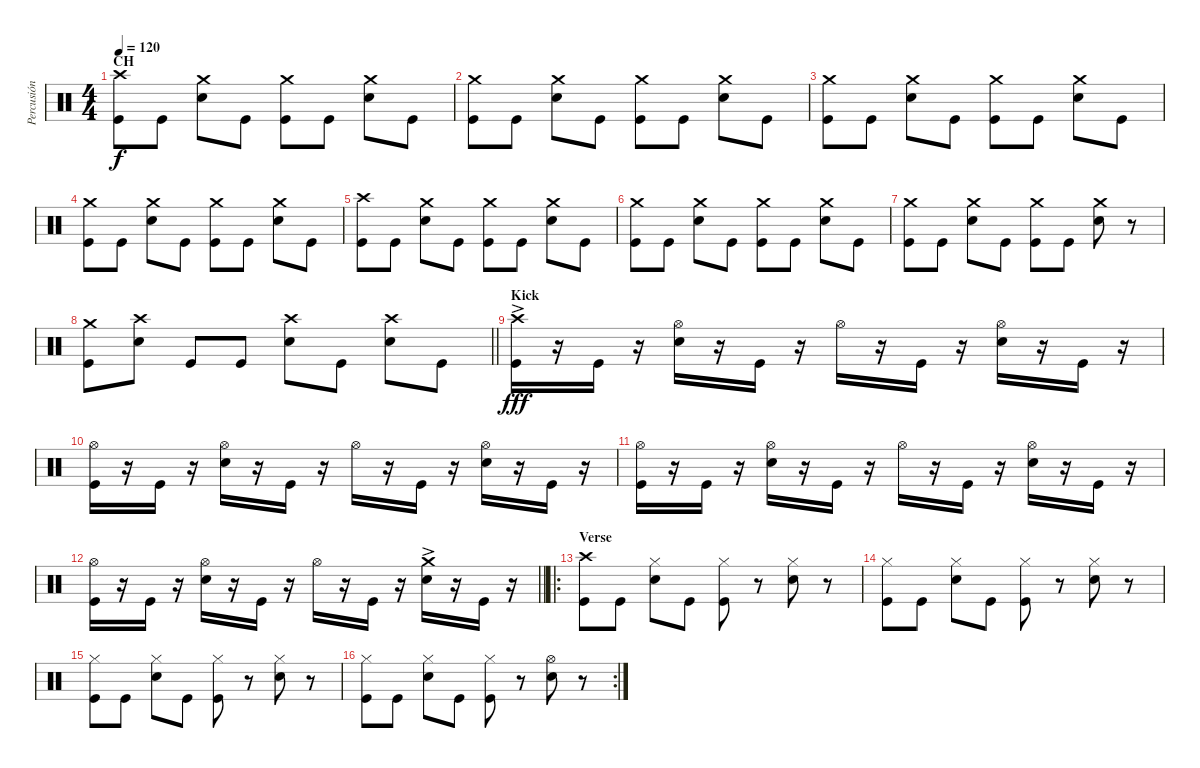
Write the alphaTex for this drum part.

\track ("Percusión" "Percusión") {instrument percussion}
\staff {score}
\articulation defaults
\ts (4 4)
\section ("" "CH")
\tempo 120
\clef neutral
\ks c
("Crash high (hit)" "Kick (hit)").8{dy f} "Kick (hit)".8 ("Crash medium (hit)" "Electric Snare (hit)").8 "Kick (hit)".8 ("Crash medium (hit)" "Kick (hit)").8 "Kick (hit)".8 ("Crash medium (hit)" "Electric Snare (hit)").8 "Kick (hit)".8 |
("Crash medium (hit)" "Kick (hit)").8 "Kick (hit)".8 ("Crash medium (hit)" "Electric Snare (hit)").8 "Kick (hit)".8 ("Crash medium (hit)" "Kick (hit)").8 "Kick (hit)".8 ("Crash medium (hit)" "Electric Snare (hit)").8 "Kick (hit)".8 |
("Crash medium (hit)" "Kick (hit)").8 "Kick (hit)".8 ("Crash medium (hit)" "Electric Snare (hit)").8 "Kick (hit)".8 ("Crash medium (hit)" "Kick (hit)").8 "Kick (hit)".8 ("Crash medium (hit)" "Electric Snare (hit)").8 "Kick (hit)".8 |
("Crash medium (hit)" "Kick (hit)").8 "Kick (hit)".8 ("Crash medium (hit)" "Electric Snare (hit)").8 "Kick (hit)".8 ("Crash medium (hit)" "Kick (hit)").8 "Kick (hit)".8 ("Crash medium (hit)" "Electric Snare (hit)").8 "Kick (hit)".8 |
("Crash high (hit)" "Kick (hit)").8 "Kick (hit)".8 ("Crash medium (hit)" "Electric Snare (hit)").8 "Kick (hit)".8 ("Crash medium (hit)" "Kick (hit)").8 "Kick (hit)".8 ("Crash medium (hit)" "Electric Snare (hit)").8 "Kick (hit)".8 |
("Crash medium (hit)" "Kick (hit)").8 "Kick (hit)".8 ("Crash medium (hit)" "Electric Snare (hit)").8 "Kick (hit)".8 ("Crash medium (hit)" "Kick (hit)").8 "Kick (hit)".8 ("Crash medium (hit)" "Electric Snare (hit)").8 "Kick (hit)".8 |
("Crash medium (hit)" "Kick (hit)").8 "Kick (hit)".8 ("Crash medium (hit)" "Electric Snare (hit)").8 "Kick (hit)".8 ("Crash medium (hit)" "Kick (hit)").8 "Kick (hit)".8 ("Crash medium (hit)" "Electric Snare (hit)").8 r.8 |
\barLineRight lightlight
("Crash medium (hit)" "Kick (hit)").8 ("Crash high (hit)" "Electric Snare (hit)").8 "Kick (hit)".8 "Kick (hit)".8 ("Crash high (hit)" "Electric Snare (hit)").8 "Kick (hit)".8 ("Crash high (hit)" "Electric Snare (hit)").8 "Kick (hit)".8 |
\section ("" "Kick")
("Crash high (hit)"{ac} "Kick (hit)").16{dy fff} r.16 "Kick (hit)".16 r.16 ("Hi-Hat (open)" "Electric Snare (hit)").16 r.16 "Kick (hit)".16 r.16 "Hi-Hat (open)".16 r.16 "Kick (hit)".16 r.16 ("Hi-Hat (open)" "Electric Snare (hit)").16 r.16 "Kick (hit)".16 r.16 |
("Hi-Hat (open)" "Kick (hit)").16 r.16 "Kick (hit)".16 r.16 ("Hi-Hat (open)" "Electric Snare (hit)").16 r.16 "Kick (hit)".16 r.16 "Hi-Hat (open)".16 r.16 "Kick (hit)".16 r.16 ("Hi-Hat (open)" "Electric Snare (hit)").16 r.16 "Kick (hit)".16 r.16 |
("Hi-Hat (open)" "Kick (hit)").16 r.16 "Kick (hit)".16 r.16 ("Hi-Hat (open)" "Electric Snare (hit)").16 r.16 "Kick (hit)".16 r.16 "Hi-Hat (open)".16 r.16 "Kick (hit)".16 r.16 ("Hi-Hat (open)" "Electric Snare (hit)").16 r.16 "Kick (hit)".16 r.16 |
\barLineRight lightlight
("Hi-Hat (open)" "Kick (hit)").16 r.16 "Kick (hit)".16 r.16 ("Hi-Hat (open)" "Electric Snare (hit)").16 r.16 "Kick (hit)".16 r.16 "Hi-Hat (open)".16 r.16 "Kick (hit)".16 r.16 ("Crash medium (hit)"{ac} "Electric Snare (hit)").16 r.16 "Kick (hit)".16 r.16 |
\ro
\section ("" "Verse")
("Crash high (hit)" "Kick (hit)").8 "Kick (hit)".8 ("Hi-Hat (closed)" "Electric Snare (hit)").8 "Kick (hit)".8 ("Hi-Hat (closed)" "Kick (hit)").8 r.8 ("Hi-Hat (closed)" "Electric Snare (hit)").8 r.8 |
("Hi-Hat (closed)" "Kick (hit)").8 "Kick (hit)".8 ("Hi-Hat (closed)" "Electric Snare (hit)").8 "Kick (hit)".8 ("Hi-Hat (closed)" "Kick (hit)").8 r.8 ("Hi-Hat (closed)" "Electric Snare (hit)").8 r.8 |
("Hi-Hat (closed)" "Kick (hit)").8 "Kick (hit)".8 ("Hi-Hat (closed)" "Electric Snare (hit)").8 "Kick (hit)".8 ("Hi-Hat (closed)" "Kick (hit)").8 r.8 ("Hi-Hat (closed)" "Electric Snare (hit)").8 r.8 |
\rc 2
("Hi-Hat (closed)" "Kick (hit)").8 "Kick (hit)".8 ("Hi-Hat (closed)" "Electric Snare (hit)").8 "Kick (hit)".8 ("Hi-Hat (closed)" "Kick (hit)").8 r.8 ("Hi-Hat (open)" "Electric Snare (hit)").8 r.8
